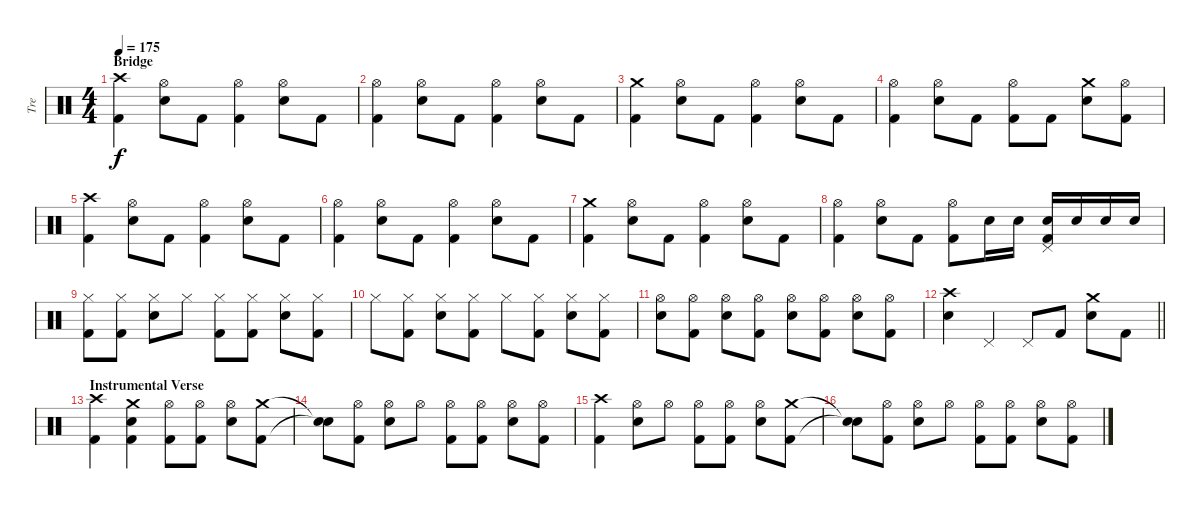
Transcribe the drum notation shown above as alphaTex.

\track ("Tre" "Tre") {instrument percussion}
\staff {score}
\articulation defaults
\ts (4 4)
\section ("" "Bridge")
\tempo 175
\clef neutral
\ks c
("Crash high (hit)" "Kick (hit) 2").4{dy f} ("Hi-Hat (open)" "Snare (hit) 2").8 "Kick (hit) 2".8 ("Hi-Hat (open)" "Kick (hit) 2").4 ("Hi-Hat (open)" "Snare (hit) 2").8 "Kick (hit) 2".8 |
("Hi-Hat (open)" "Kick (hit) 2").4 ("Hi-Hat (open)" "Snare (hit) 2").8 "Kick (hit) 2".8 ("Hi-Hat (open)" "Kick (hit) 2").4 ("Hi-Hat (open)" "Snare (hit) 2").8 "Kick (hit) 2".8 |
("Crash medium (hit)" "Kick (hit) 2").4 ("Hi-Hat (open)" "Snare (hit) 2").8 "Kick (hit) 2".8 ("Hi-Hat (open)" "Kick (hit) 2").4 ("Hi-Hat (open)" "Snare (hit) 2").8 "Kick (hit) 2".8 |
("Hi-Hat (open)" "Kick (hit) 2").4 ("Hi-Hat (open)" "Snare (hit) 2").8 "Kick (hit) 2".8 ("Hi-Hat (open)" "Kick (hit) 2").8 "Kick (hit) 2".8 ("Crash medium (hit)" "Snare (hit) 2").8 ("Hi-Hat (open)" "Kick (hit) 2").8 |
("Crash high (hit)" "Kick (hit) 2").4 ("Hi-Hat (open)" "Snare (hit) 2").8 "Kick (hit) 2".8 ("Hi-Hat (open)" "Kick (hit) 2").4 ("Hi-Hat (open)" "Snare (hit) 2").8 "Kick (hit) 2".8 |
("Hi-Hat (open)" "Kick (hit) 2").4 ("Hi-Hat (open)" "Snare (hit) 2").8 "Kick (hit) 2".8 ("Hi-Hat (open)" "Kick (hit) 2").4 ("Hi-Hat (open)" "Snare (hit) 2").8 "Kick (hit) 2".8 |
("Crash medium (hit)" "Kick (hit) 2").4 ("Hi-Hat (open)" "Snare (hit) 2").8 "Kick (hit) 2".8 ("Hi-Hat (open)" "Kick (hit) 2").4 ("Hi-Hat (open)" "Snare (hit) 2").8 "Kick (hit) 2".8 |
("Hi-Hat (open)" "Kick (hit) 2").4 ("Hi-Hat (open)" "Snare (hit) 2").8 "Kick (hit) 2".8 ("Hi-Hat (open)" "Kick (hit) 2").8 "Snare (hit) 2".16 "Snare (hit) 2".16 ("Snare (hit) 2" "Pedal Hi-Hat (hit)" "Kick (hit) 2").16 "Snare (hit) 2".16 "Snare (hit) 2".16 "Snare (hit) 2".16 |
("Hi-Hat (closed)" "Kick (hit) 2").8 ("Hi-Hat (closed)" "Kick (hit) 2").8 ("Hi-Hat (closed)" "Snare (hit) 2").8 "Hi-Hat (closed)".8 ("Hi-Hat (closed)" "Kick (hit) 2").8 ("Hi-Hat (closed)" "Kick (hit) 2").8 ("Hi-Hat (closed)" "Snare (hit) 2").8 ("Hi-Hat (closed)" "Kick (hit) 2").8 |
"Hi-Hat (closed)".8 ("Hi-Hat (closed)" "Kick (hit) 2").8 ("Hi-Hat (closed)" "Snare (hit) 2").8 ("Hi-Hat (closed)" "Kick (hit) 2").8 "Hi-Hat (closed)".8 ("Hi-Hat (closed)" "Kick (hit) 2").8 ("Hi-Hat (closed)" "Snare (hit) 2").8 ("Hi-Hat (closed)" "Kick (hit) 2").8 |
("Hi-Hat (open)" "Snare (hit) 2").8 ("Hi-Hat (open)" "Kick (hit) 2").8 ("Hi-Hat (open)" "Snare (hit) 2").8 ("Hi-Hat (open)" "Kick (hit) 2").8 ("Hi-Hat (open)" "Snare (hit) 2").8 ("Hi-Hat (open)" "Kick (hit) 2").8 ("Hi-Hat (open)" "Snare (hit) 2").8 ("Hi-Hat (open)" "Kick (hit) 2").8 |
\barLineRight lightlight
("Crash high (hit)" "Snare (hit) 2").4 "Pedal Hi-Hat (hit)".4 "Pedal Hi-Hat (hit)".8 "Kick (hit) 2".8 ("Crash medium (hit)" "Snare (hit) 2").8 "Kick (hit) 2".8 |
\section ("" "Instrumental Verse")
("Crash high (hit)" "Kick (hit) 2").4 ("Crash medium (hit)" "Snare (hit) 2" "Kick (hit) 2").4 ("Hi-Hat (open)" "Kick (hit) 2").8 ("Hi-Hat (open)" "Kick (hit) 2").8 ("Hi-Hat (open)" "Snare (hit) 2").8 ("Crash medium (hit)" "Kick (hit) 2").8 |
("Snare (hit)"{t} "Snare (hit)"{t}).8 ("Hi-Hat (open)" "Kick (hit) 2").8 ("Hi-Hat (open)" "Snare (hit) 2").8 "Hi-Hat (open)".8 ("Hi-Hat (open)" "Kick (hit) 2").8 ("Hi-Hat (open)" "Kick (hit) 2").8 ("Hi-Hat (open)" "Snare (hit) 2").8 ("Hi-Hat (open)" "Kick (hit) 2").8 |
("Crash high (hit)" "Kick (hit) 2").4 ("Hi-Hat (open)" "Snare (hit) 2").8 "Hi-Hat (open)".8 ("Hi-Hat (open)" "Kick (hit) 2").8 ("Hi-Hat (open)" "Kick (hit) 2").8 ("Hi-Hat (open)" "Snare (hit) 2").8 ("Crash medium (hit)" "Kick (hit) 2").8 |
("Snare (hit)"{t} "Snare (hit)"{t}).8 ("Hi-Hat (open)" "Kick (hit) 2").8 ("Hi-Hat (open)" "Snare (hit) 2").8 "Hi-Hat (open)".8 ("Hi-Hat (open)" "Kick (hit) 2").8 ("Hi-Hat (open)" "Kick (hit) 2").8 ("Hi-Hat (open)" "Snare (hit) 2").8 ("Hi-Hat (open)" "Kick (hit) 2").8
